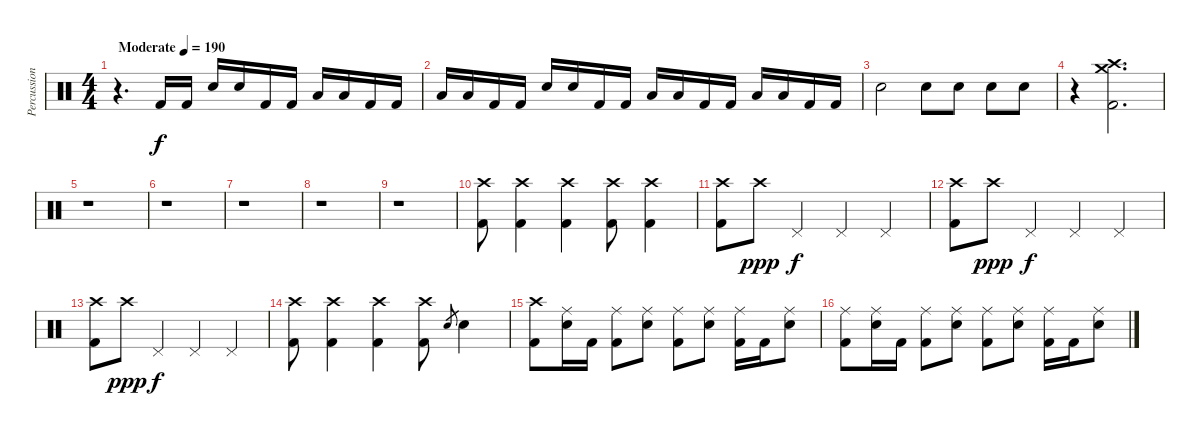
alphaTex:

\track ("Percussion" "Percussion") {instrument percussion}
\staff {score}
\articulation defaults
\ts (4 4)
\tempo (190 "Moderate")
\clef neutral
\ks c
r.4{d dy f} "Kick (hit) 2".16 "Kick (hit) 2".16 "Electric Snare (hit)".16 "Electric Snare (hit)".16 "Kick (hit) 2".16 "Kick (hit) 2".16 "Low Tom (hit)".16 "Low Tom (hit)".16 "Kick (hit) 2".16 "Kick (hit) 2".16 |
"Low Floor Tom (hit)".16 "Low Floor Tom (hit)".16 "Kick (hit) 2".16 "Kick (hit) 2".16 "Electric Snare (hit)".16 "Electric Snare (hit)".16 "Kick (hit) 2".16 "Kick (hit) 2".16 "Low Tom (hit)".16 "Low Tom (hit)".16 "Kick (hit) 2".16 "Kick (hit) 2".16 "Low Floor Tom (hit)".16 "Low Floor Tom (hit)".16 "Kick (hit) 2".16 "Kick (hit) 2".16 |
"Electric Snare (hit)".2 "Electric Snare (hit)".8 "Electric Snare (hit)".8 "Electric Snare (hit)".8 "Electric Snare (hit)".8 |
r.4 ("Crash high (hit)" "Crash medium (hit)" "Kick (hit) 2").2{d} |
r.1 |
r.1 |
r.1 |
r.1 |
r.1 |
("Crash high (hit)" "Kick (hit) 2").8 ("Crash high (hit)" "Kick (hit) 2").4 ("Crash high (hit)" "Kick (hit) 2").4 ("Crash high (hit)" "Kick (hit) 2").8 ("Crash high (hit)" "Kick (hit) 2").4 |
("Crash high (hit)" "Kick (hit) 2").8 "Crash high (hit)".8{dy ppp} "Pedal Hi-Hat (hit)".4{dy f} "Pedal Hi-Hat (hit)".4 "Pedal Hi-Hat (hit)".4 |
("Crash high (hit)" "Kick (hit) 2").8 "Crash high (hit)".8{dy ppp} "Pedal Hi-Hat (hit)".4{dy f} "Pedal Hi-Hat (hit)".4 "Pedal Hi-Hat (hit)".4 |
("Crash high (hit)" "Kick (hit) 2").8 "Crash high (hit)".8{dy ppp} "Pedal Hi-Hat (hit)".4{dy f} "Pedal Hi-Hat (hit)".4 "Pedal Hi-Hat (hit)".4 |
("Crash high (hit)" "Kick (hit) 2").8 ("Crash high (hit)" "Kick (hit) 2").4 ("Crash high (hit)" "Kick (hit) 2").4 ("Crash high (hit)" "Kick (hit) 2").8 "Electric Snare (hit)".8{gr} "Electric Snare (hit)".4 |
("Crash high (hit)" "Kick (hit) 2").8 ("Ride (middle)" "Electric Snare (hit)").16 "Kick (hit) 2".16 ("Ride (middle)" "Kick (hit) 2").8 ("Ride (middle)" "Electric Snare (hit)").8 ("Ride (middle)" "Kick (hit) 2").8 ("Ride (middle)" "Electric Snare (hit)").8 ("Ride (middle)" "Kick (hit) 2").16 "Kick (hit) 2".16 ("Ride (middle)" "Electric Snare (hit)").8 |
("Ride (middle)" "Kick (hit) 2").8 ("Ride (middle)" "Electric Snare (hit)").16 "Kick (hit) 2".16 ("Ride (middle)" "Kick (hit) 2").8 ("Ride (middle)" "Electric Snare (hit)").8 ("Ride (middle)" "Kick (hit) 2").8 ("Ride (middle)" "Electric Snare (hit)").8 ("Ride (middle)" "Kick (hit) 2").16 "Kick (hit) 2".16 ("Ride (middle)" "Electric Snare (hit)").8
